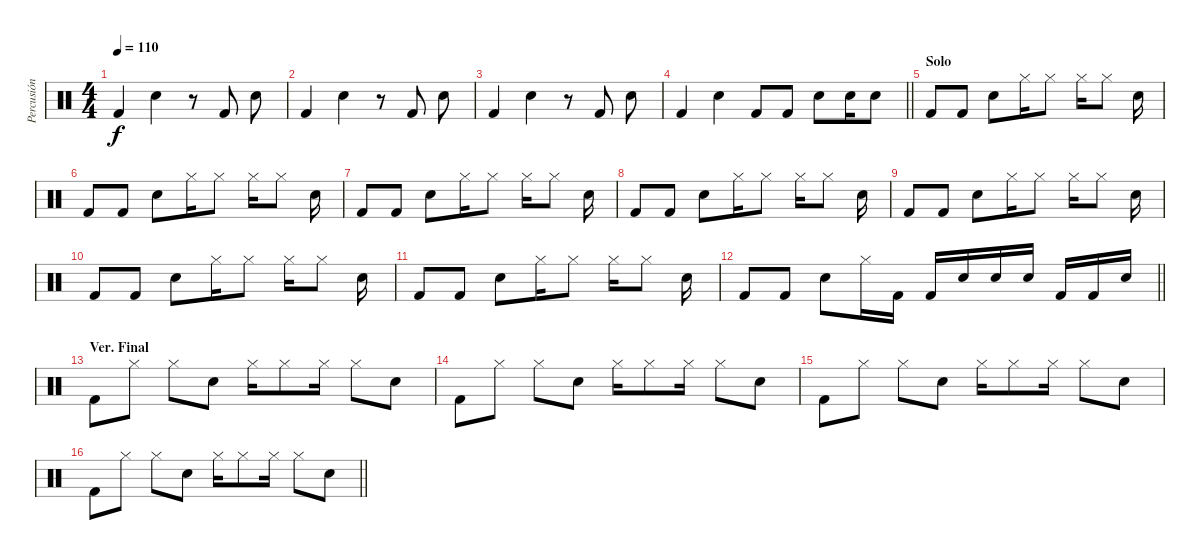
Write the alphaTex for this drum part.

\track ("Percusión" "Percusión") {instrument percussion}
\staff {score}
\articulation defaults
\ts (4 4)
\tempo 110
\clef neutral
\ks c "Kick (hit) 2".4{dy f} "Snare (hit) 2".4
r.8 "Kick (hit) 2".8 "Snare (hit) 2".8 |
"Kick (hit) 2".4 "Snare (hit) 2".4 r.8 "Kick (hit) 2".8 "Snare (hit) 2".8 |
"Kick (hit) 2".4 "Snare (hit) 2".4 r.8 "Kick (hit) 2".8 "Snare (hit) 2".8 |
\barLineRight lightlight "Kick (hit) 2".4 "Snare (hit) 2".4 "Kick (hit) 2".8 "Kick (hit) 2".8 "Snare (hit) 2".8 "Snare (hit) 2".16 "Snare (hit) 2".8
|
\section ("" "Solo")
"Kick (hit) 2".8 "Kick (hit) 2".8 "Snare (hit) 2".8 "Hi-Hat (closed)".16 "Hi-Hat (closed)".8 "Hi-Hat (closed)".16 "Hi-Hat (closed)".8 "Snare (hit) 2".16 |
"Kick (hit) 2".8 "Kick (hit) 2".8 "Snare (hit) 2".8 "Hi-Hat (closed)".16 "Hi-Hat (closed)".8 "Hi-Hat (closed)".16 "Hi-Hat (closed)".8 "Snare (hit) 2".16 |
"Kick (hit) 2".8 "Kick (hit) 2".8 "Snare (hit) 2".8 "Hi-Hat (closed)".16 "Hi-Hat (closed)".8 "Hi-Hat (closed)".16 "Hi-Hat (closed)".8 "Snare (hit) 2".16 |
"Kick (hit) 2".8 "Kick (hit) 2".8 "Snare (hit) 2".8 "Hi-Hat (closed)".16 "Hi-Hat (closed)".8 "Hi-Hat (closed)".16 "Hi-Hat (closed)".8 "Snare (hit) 2".16 |
"Kick (hit) 2".8 "Kick (hit) 2".8 "Snare (hit) 2".8 "Hi-Hat (closed)".16 "Hi-Hat (closed)".8 "Hi-Hat (closed)".16 "Hi-Hat (closed)".8 "Snare (hit) 2".16 |
"Kick (hit) 2".8 "Kick (hit) 2".8 "Snare (hit) 2".8 "Hi-Hat (closed)".16 "Hi-Hat (closed)".8 "Hi-Hat (closed)".16 "Hi-Hat (closed)".8 "Snare (hit) 2".16 |
"Kick (hit) 2".8 "Kick (hit) 2".8 "Snare (hit) 2".8 "Hi-Hat (closed)".16 "Hi-Hat (closed)".8 "Hi-Hat (closed)".16 "Hi-Hat (closed)".8 "Snare (hit) 2".16 |
\barLineRight lightlight "Kick (hit) 2".8 "Kick (hit) 2".8 "Snare (hit) 2".8 "Hi-Hat (closed)".16 "Kick (hit) 2".16 "Kick (hit) 2".16 "Snare (hit) 2".16 "Snare (hit) 2".16 "Snare (hit) 2".16 "Kick (hit) 2".16 "Kick (hit) 2".16 "Snare (hit) 2".16
|
\section ("" "Ver. Final")
"Kick (hit) 2".8 "Hi-Hat (closed)".8 "Hi-Hat (closed)".8 "Snare (hit) 2".8 "Hi-Hat (closed)".16 "Hi-Hat (closed)".8 "Hi-Hat (closed)".16 "Hi-Hat (closed)".8 "Snare (hit) 2".8 |
"Kick (hit) 2".8 "Hi-Hat (closed)".8 "Hi-Hat (closed)".8 "Snare (hit) 2".8 "Hi-Hat (closed)".16 "Hi-Hat (closed)".8 "Hi-Hat (closed)".16 "Hi-Hat (closed)".8 "Snare (hit) 2".8 |
"Kick (hit) 2".8 "Hi-Hat (closed)".8 "Hi-Hat (closed)".8 "Snare (hit) 2".8 "Hi-Hat (closed)".16 "Hi-Hat (closed)".8 "Hi-Hat (closed)".16 "Hi-Hat (closed)".8 "Snare (hit) 2".8 |
\barLineRight lightlight "Kick (hit) 2".8 "Hi-Hat (closed)".8 "Hi-Hat (closed)".8 "Snare (hit) 2".8 "Hi-Hat (closed)".16 "Hi-Hat (closed)".8 "Hi-Hat (closed)".16 "Hi-Hat (closed)".8 "Snare (hit) 2".8
